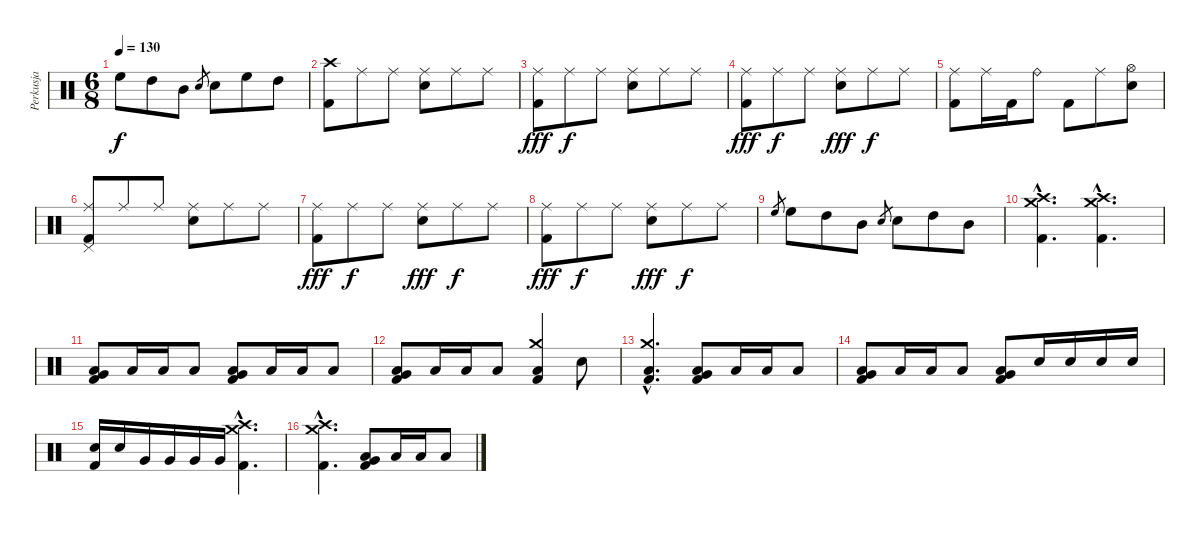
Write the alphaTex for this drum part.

\track ("Perkusja" "Perkusja") {instrument percussion}
\staff {score}
\articulation defaults
\ts (6 8)
\tempo 130
\clef neutral
\ks c "High Floor Tom (hit)".8{dy f} "High Tom (hit)".8 "Mid Tom (hit)".8 "Electric Snare (hit)".8{gr} "Electric Snare (hit)".8 "High Floor Tom (hit)".8 "High Tom (hit)".8
|
("Crash high (hit)" "Kick (hit) 2").8 "Ride (middle)".8 "Ride (middle)".8 ("Ride (middle)" "Electric Snare (hit)").8 "Ride (middle)".8 "Ride (middle)".8 |
("Ride (middle)" "Kick (hit) 2").8{dy fff} "Ride (middle)".8{dy f} "Ride (middle)".8 ("Ride (middle)" "Electric Snare (hit)").8 "Ride (middle)".8 "Ride (middle)".8 |
("Ride (middle)" "Kick (hit) 2").8{dy fff} "Ride (middle)".8{dy f} "Ride (middle)".8 ("Ride (middle)" "Electric Snare (hit)").8{dy fff} "Ride (middle)".8{dy f} "Ride (middle)".8 |
("Ride (middle)" "Kick (hit) 2").8 "Ride (middle)".16 "Kick (hit) 2".16 "Ride (bell)".8 "Kick (hit) 2".8 "Ride (middle)".8 ("Hi-Hat (open)" "Electric Snare (hit)").8 |
("Ride (middle)" "Pedal Hi-Hat (hit)" "Kick (hit) 2").8 "Ride (middle)".8 "Ride (middle)".8 ("Ride (middle)" "Electric Snare (hit)").8 "Ride (middle)".8 "Ride (middle)".8 |
("Ride (middle)" "Kick (hit) 2").8{dy fff} "Ride (middle)".8{dy f} "Ride (middle)".8 ("Ride (middle)" "Electric Snare (hit)").8{dy fff} "Ride (middle)".8{dy f} "Ride (middle)".8 |
("Ride (middle)" "Kick (hit) 2").8{dy fff} "Ride (middle)".8{dy f} "Ride (middle)".8 ("Ride (middle)" "Electric Snare (hit)").8{dy fff} "Ride (middle)".8{dy f} "Ride (middle)".8 |
"High Floor Tom (hit)".8{gr} "High Floor Tom (hit)".8 "High Tom (hit)".8 "Mid Tom (hit)".8 "Electric Snare (hit)".8{gr} "Electric Snare (hit)".8 "High Tom (hit)".8 "Mid Tom (hit)".8 |
("Crash high (hit)"{hac} "Crash medium (hit)"{hac} "Kick (hit) 2"{hac}).4{d} ("Crash high (hit)"{hac} "Crash medium (hit)"{hac} "Kick (hit) 2"{hac}).4{d} |
("Very Low Tom (hit)" "Low Floor Tom (hit)" "Kick (hit) 2").8 "Low Floor Tom (hit)".16 "Low Floor Tom (hit)".16 "Low Floor Tom (hit)".8 ("Very Low Tom (hit)" "Low Floor Tom (hit)" "Kick (hit) 2").8 "Low Floor Tom (hit)".16 "Low Floor Tom (hit)".16 "Low Floor Tom (hit)".8 |
("Very Low Tom (hit)" "Low Floor Tom (hit)" "Kick (hit) 2").8 "Low Floor Tom (hit)".16 "Low Floor Tom (hit)".16 "Low Floor Tom (hit)".8 ("Crash medium (hit)" "Low Floor Tom (hit)" "Kick (hit) 2").4 "Electric Snare (hit)".8 |
("Crash medium (hit)"{hac} "Low Floor Tom (hit)"{hac} "Kick (hit) 2"{hac}).4{d} ("Very Low Tom (hit)" "Low Floor Tom (hit)" "Kick (hit) 2").8 "Low Floor Tom (hit)".16 "Low Floor Tom (hit)".16 "Low Floor Tom (hit)".8 |
("Very Low Tom (hit)" "Low Floor Tom (hit)" "Kick (hit) 2").8 "Low Floor Tom (hit)".16 "Low Floor Tom (hit)".16 "Low Floor Tom (hit)".8 ("Very Low Tom (hit)" "Low Floor Tom (hit)" "Kick (hit) 2").8 "Electric Snare (hit)".16 "Electric Snare (hit)".16 "Electric Snare (hit)".16 "Electric Snare (hit)".16 |
("Electric Snare (hit)" "Kick (hit) 2").16 "Electric Snare (hit)".16 "Very Low Tom (hit)".16 "Very Low Tom (hit)".16 "Very Low Tom (hit)".16 "Very Low Tom (hit)".16 ("Crash high (hit)"{hac} "Crash medium (hit)"{hac} "Kick (hit) 2"{hac}).4{d} |
("Crash high (hit)"{hac} "Crash medium (hit)"{hac} "Kick (hit) 2"{hac}).4{d} ("Very Low Tom (hit)" "Low Floor Tom (hit)" "Kick (hit) 2").8 "Low Floor Tom (hit)".16 "Low Floor Tom (hit)".16 "Low Floor Tom (hit)".8
